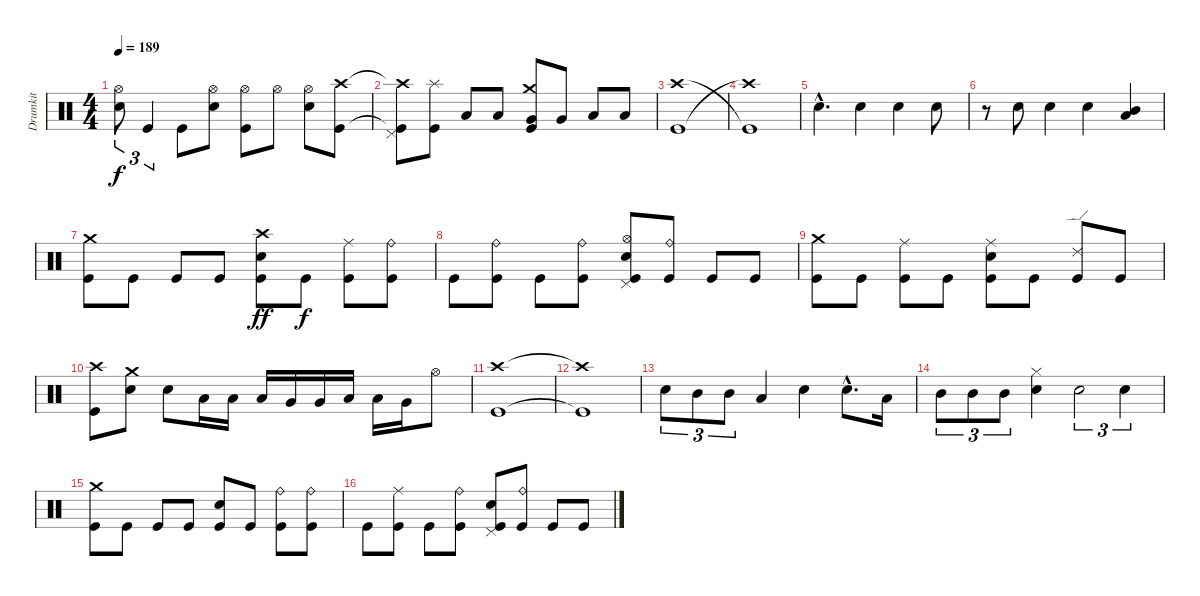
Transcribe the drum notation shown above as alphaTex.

\track ("Drumkit" "Drumkit") {instrument percussion}
\staff {score}
\articulation defaults
\ts (4 4)
\tempo 189
\clef neutral
\ks c
("Snare (hit) 2" "Hi-Hat (open)").8{tu (3 2) dy f} "Kick (hit)".4{tu (3 2)} "Kick (hit)".8 ("Snare (hit) 2" "Hi-Hat (open)").8 ("Hi-Hat (open)" "Kick (hit)").8 "Hi-Hat (open)".8 ("Snare (hit) 2" "Hi-Hat (open)").8 ("Kick (hit)" "Crash high (hit)").8 |
("Kick (hit)"{t} "Crash high (hit)"{t} "Pedal Hi-Hat (hit)").8 ("Kick (hit)" "Splash (hit)").8 "Low Tom (hit)".8 "Low Tom (hit)".8 ("Crash medium (hit)" "Very Low Tom (hit)" "Kick (hit)").8 "Very Low Tom (hit)".8 "Low Floor Tom (hit)".8 "Low Floor Tom (hit)".8 |
("Crash high (hit)" "Kick (hit)").1 |
("Kick (hit)"{t} "Crash high (hit)"{t}).1 |
"Snare (hit) 2"{hac}.4{d} "Snare (hit) 2".4 "Snare (hit) 2".4 "Snare (hit) 2".8 |
r.8 "Snare (hit) 2".8 "Snare (hit) 2".4 "Snare (hit) 2".4 ("Mid Tom (hit)" "Low Tom (hit)").4 |
("Kick (hit)" "Crash medium (hit)").8 "Kick (hit)".8 "Kick (hit)".8 "Kick (hit)".8 ("Kick (hit)" "Snare (hit) 2" "Crash high (hit)").8{dy ff} "Kick (hit)".8{dy f} ("Kick (hit)" "Ride (middle)").8 ("Kick (hit)" "Ride (bell)").8 |
"Kick (hit)".8 ("Kick (hit)" "Ride (bell)").8 "Kick (hit)".8 ("Kick (hit)" "Ride (bell)").8 ("Kick (hit)" "Snare (hit) 2" "Pedal Hi-Hat (hit)" "Hi-Hat (open)").8 ("Kick (hit)" "Ride (bell)").8 "Kick (hit)".8 "Kick (hit)".8 |
("Kick (hit)" "Crash medium (hit)").8 "Kick (hit)".8 ("Kick (hit)" "Ride (middle)").8 "Kick (hit)".8 ("Kick (hit)" "Snare (hit) 2" "Ride (middle)").8 "Kick (hit)".8 ("Kick (hit)" "Ride (edge) 2").8 "Kick (hit)".8 |
("Kick (hit)" "Crash high (hit)").8 ("Snare (hit) 2" "Crash medium (hit)").8 "Snare (hit) 2".8 "Low Tom (hit)".16 "Low Tom (hit)".16 "Low Tom (hit)".16 "Very Low Tom (hit)".16 "Very Low Tom (hit)".16 "Low Floor Tom (hit)".16 "Low Tom (hit)".16 "Very Low Tom (hit)".16 "Hi-Hat (open)".8 |
("Kick (hit)" "Crash high (hit)").1 |
("Kick (hit)"{t} "Crash high (hit)"{t}).1 |
"Snare (hit) 2".8{tu (3 2)} "Mid Tom (hit)".8{tu (3 2)} "Mid Tom (hit)".8{tu (3 2)} "Low Tom (hit)".4 "Snare (hit) 2".4 "Snare (hit) 2"{hac}.8{d} "Low Tom (hit)".16 |
"Mid Tom (hit)".8{tu (3 2)} "Mid Tom (hit)".8{tu (3 2)} "Mid Tom (hit)".8{tu (3 2)} ("Snare (hit) 2" "Hi-Hat (closed)").4 "Snare (hit) 2".2{tu (3 2)} "Snare (hit) 2".4{tu (3 2)} |
("Kick (hit)" "Crash medium (hit)").8 "Kick (hit)".8 "Kick (hit)".8 "Kick (hit)".8 ("Kick (hit)" "Snare (hit) 2").8 "Kick (hit)".8 ("Kick (hit)" "Ride (bell)").8 ("Kick (hit)" "Ride (bell)").8 |
"Kick (hit)".8 ("Kick (hit)" "Ride (middle)").8 "Kick (hit)".8 ("Kick (hit)" "Ride (bell)").8 ("Kick (hit)" "Snare (hit) 2" "Pedal Hi-Hat (hit)").8 ("Kick (hit)" "Ride (bell)").8 "Kick (hit)".8 "Kick (hit)".8
